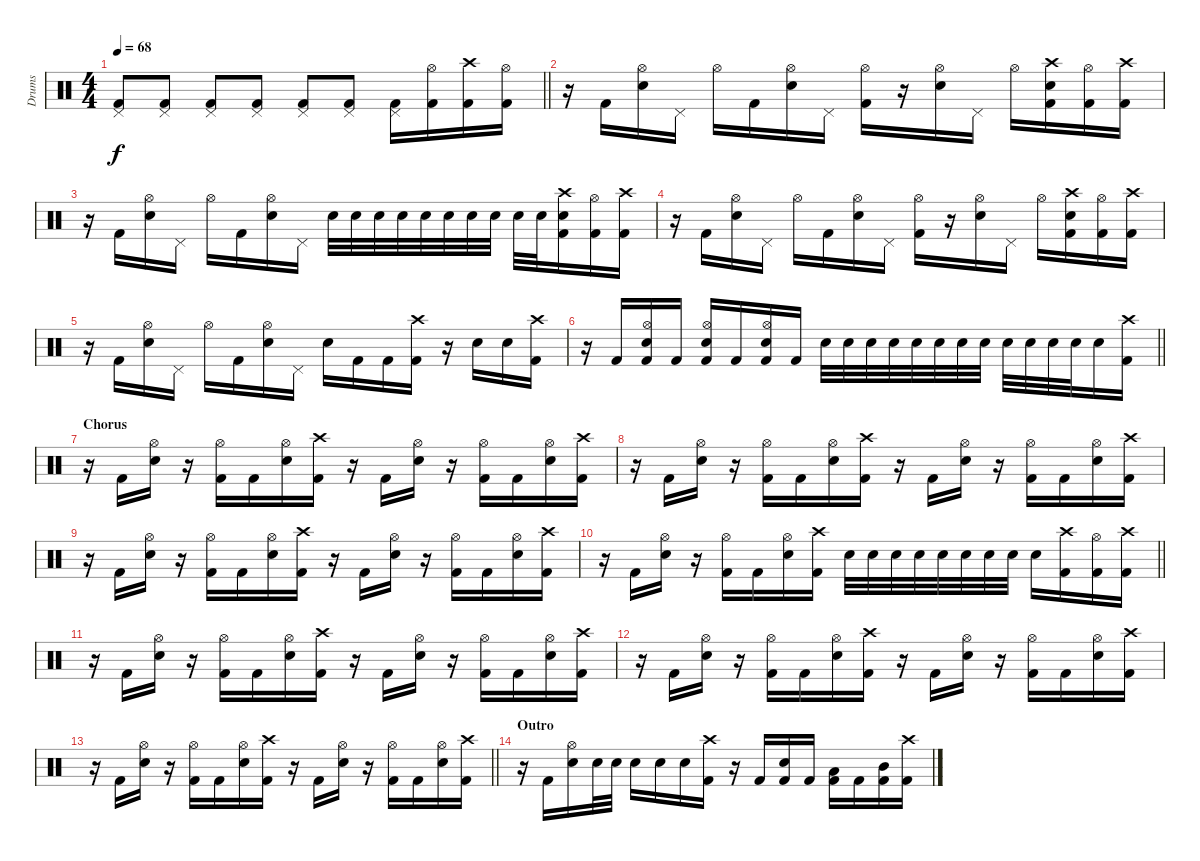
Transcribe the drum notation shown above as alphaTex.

\track ("Drums" "Drums") {instrument percussion}
\staff {score}
\articulation defaults
\ts (4 4)
\tempo 68
\clef neutral
\barLineRight lightlight
\ks c
("Pedal Hi-Hat (hit)" "Kick (hit) 2").8{dy f} ("Pedal Hi-Hat (hit)" "Kick (hit) 2").8 ("Pedal Hi-Hat (hit)" "Kick (hit) 2").8 ("Pedal Hi-Hat (hit)" "Kick (hit) 2").8 ("Pedal Hi-Hat (hit)" "Kick (hit) 2").8 ("Pedal Hi-Hat (hit)" "Kick (hit) 2").8 ("Pedal Hi-Hat (hit)" "Kick (hit) 2").16 ("Hi-Hat (open)" "Kick (hit) 2").16 ("Crash high (hit)" "Kick (hit) 2").16 ("Hi-Hat (open)" "Kick (hit) 2").16 |
r.16 "Kick (hit) 2".16 ("Hi-Hat (open)" "Snare (hit) 2").16 "Pedal Hi-Hat (hit)".16 "Hi-Hat (open)".16 "Kick (hit) 2".16 ("Hi-Hat (open)" "Snare (hit) 2").16 "Pedal Hi-Hat (hit)".16 ("Hi-Hat (open)" "Kick (hit) 2").16 r.16 ("Hi-Hat (open)" "Snare (hit) 2").16 "Pedal Hi-Hat (hit)".16 "Hi-Hat (open)".16 ("Crash high (hit)" "Snare (hit) 2" "Kick (hit) 2").16 ("Hi-Hat (open)" "Kick (hit) 2").16 ("Crash high (hit)" "Kick (hit) 2").16 |
r.16 "Kick (hit) 2".16 ("Hi-Hat (open)" "Snare (hit) 2").16 "Pedal Hi-Hat (hit)".16 "Hi-Hat (open)".16 "Kick (hit) 2".16 ("Hi-Hat (open)" "Snare (hit) 2").16 "Pedal Hi-Hat (hit)".16 "Snare (hit) 2".32 "Snare (hit) 2".32 "Snare (hit) 2".32 "Snare (hit) 2".32 "Snare (hit) 2".32 "Snare (hit) 2".32 "Snare (hit) 2".32 "Snare (hit) 2".32 "Snare (hit) 2".32 "Snare (hit) 2".32 ("Crash high (hit)" "Snare (hit) 2" "Kick (hit) 2").16 ("Hi-Hat (open)" "Kick (hit) 2").16 ("Crash high (hit)" "Kick (hit) 2").16 |
r.16 "Kick (hit) 2".16 ("Hi-Hat (open)" "Snare (hit) 2").16 "Pedal Hi-Hat (hit)".16 "Hi-Hat (open)".16 "Kick (hit) 2".16 ("Hi-Hat (open)" "Snare (hit) 2").16 "Pedal Hi-Hat (hit)".16 ("Hi-Hat (open)" "Kick (hit) 2").16 r.16 ("Hi-Hat (open)" "Snare (hit) 2").16 "Pedal Hi-Hat (hit)".16 "Hi-Hat (open)".16 ("Crash high (hit)" "Snare (hit) 2" "Kick (hit) 2").16 ("Hi-Hat (open)" "Kick (hit) 2").16 ("Crash high (hit)" "Kick (hit) 2").16 |
r.16 "Kick (hit) 2".16 ("Hi-Hat (open)" "Snare (hit) 2").16 "Pedal Hi-Hat (hit)".16 "Hi-Hat (open)".16 "Kick (hit) 2".16 ("Hi-Hat (open)" "Snare (hit) 2").16 "Pedal Hi-Hat (hit)".16 "Snare (hit) 2".16 "Kick (hit) 2".16 "Kick (hit) 2".16 ("Crash high (hit)" "Kick (hit) 2").16 r.16 "Snare (hit) 2".16 "Snare (hit) 2".16 ("Crash high (hit)" "Kick (hit) 2").16 |
\barLineRight lightlight
r.16 "Kick (hit) 2".16 ("Hi-Hat (open)" "Snare (hit) 2" "Kick (hit) 2").16 "Kick (hit) 2".16 ("Hi-Hat (open)" "Snare (hit) 2" "Kick (hit) 2").16 "Kick (hit) 2".16 ("Hi-Hat (open)" "Snare (hit) 2" "Kick (hit) 2").16 "Kick (hit) 2".16 "Snare (hit) 2".32 "Snare (hit) 2".32 "Snare (hit) 2".32 "Snare (hit) 2".32 "Snare (hit) 2".32 "Snare (hit) 2".32 "Snare (hit) 2".32 "Snare (hit) 2".32 "Snare (hit) 2".32 "Snare (hit) 2".32 "Snare (hit) 2".32 "Snare (hit) 2".32 "Snare (hit) 2".16 ("Crash high (hit)" "Kick (hit) 2").16 |
\section ("" "Chorus")
r.16 "Kick (hit) 2".16 ("Hi-Hat (open)" "Snare (hit) 2").16 r.16 ("Hi-Hat (open)" "Kick (hit) 2").16 "Kick (hit) 2".16 ("Hi-Hat (open)" "Snare (hit) 2").16 ("Crash high (hit)" "Kick (hit) 2").16 r.16 "Kick (hit) 2".16 ("Hi-Hat (open)" "Snare (hit) 2").16 r.16 ("Hi-Hat (open)" "Kick (hit) 2").16 "Kick (hit) 2".16 ("Hi-Hat (open)" "Snare (hit) 2").16 ("Crash high (hit)" "Kick (hit) 2").16 |
r.16 "Kick (hit) 2".16 ("Hi-Hat (open)" "Snare (hit) 2").16 r.16 ("Hi-Hat (open)" "Kick (hit) 2").16 "Kick (hit) 2".16 ("Hi-Hat (open)" "Snare (hit) 2").16 ("Crash high (hit)" "Kick (hit) 2").16 r.16 "Kick (hit) 2".16 ("Hi-Hat (open)" "Snare (hit) 2").16 r.16 ("Hi-Hat (open)" "Kick (hit) 2").16 "Kick (hit) 2".16 ("Hi-Hat (open)" "Snare (hit) 2").16 ("Crash high (hit)" "Kick (hit) 2").16 |
r.16 "Kick (hit) 2".16 ("Hi-Hat (open)" "Snare (hit) 2").16 r.16 ("Hi-Hat (open)" "Kick (hit) 2").16 "Kick (hit) 2".16 ("Hi-Hat (open)" "Snare (hit) 2").16 ("Crash high (hit)" "Kick (hit) 2").16 r.16 "Kick (hit) 2".16 ("Hi-Hat (open)" "Snare (hit) 2").16 r.16 ("Hi-Hat (open)" "Kick (hit) 2").16 "Kick (hit) 2".16 ("Hi-Hat (open)" "Snare (hit) 2").16 ("Crash high (hit)" "Kick (hit) 2").16 |
\barLineRight lightlight
r.16 "Kick (hit) 2".16 ("Hi-Hat (open)" "Snare (hit) 2").16 r.16 ("Hi-Hat (open)" "Kick (hit) 2").16 "Kick (hit) 2".16 ("Hi-Hat (open)" "Snare (hit) 2").16 ("Crash high (hit)" "Kick (hit) 2").16 "Snare (hit) 2".32 "Snare (hit) 2".32 "Snare (hit) 2".32 "Snare (hit) 2".32 "Snare (hit) 2".32 "Snare (hit) 2".32 "Snare (hit) 2".32 "Snare (hit) 2".32 "Snare (hit) 2".16 ("Crash high (hit)" "Kick (hit) 2").16 ("Hi-Hat (open)" "Kick (hit) 2").16 ("Crash high (hit)" "Kick (hit) 2").16 |
r.16 "Kick (hit) 2".16 ("Hi-Hat (open)" "Snare (hit) 2").16 r.16 ("Hi-Hat (open)" "Kick (hit) 2").16 "Kick (hit) 2".16 ("Hi-Hat (open)" "Snare (hit) 2").16 ("Crash high (hit)" "Kick (hit) 2").16 r.16 "Kick (hit) 2".16 ("Hi-Hat (open)" "Snare (hit) 2").16 r.16 ("Hi-Hat (open)" "Kick (hit) 2").16 "Kick (hit) 2".16 ("Hi-Hat (open)" "Snare (hit) 2").16 ("Crash high (hit)" "Kick (hit) 2").16 |
r.16 "Kick (hit) 2".16 ("Hi-Hat (open)" "Snare (hit) 2").16 r.16 ("Hi-Hat (open)" "Kick (hit) 2").16 "Kick (hit) 2".16 ("Hi-Hat (open)" "Snare (hit) 2").16 ("Crash high (hit)" "Kick (hit) 2").16 r.16 "Kick (hit) 2".16 ("Hi-Hat (open)" "Snare (hit) 2").16 r.16 ("Hi-Hat (open)" "Kick (hit) 2").16 "Kick (hit) 2".16 ("Hi-Hat (open)" "Snare (hit) 2").16 ("Crash high (hit)" "Kick (hit) 2").16 |
\barLineRight lightlight
r.16 "Kick (hit) 2".16 ("Hi-Hat (open)" "Snare (hit) 2").16 r.16 ("Hi-Hat (open)" "Kick (hit) 2").16 "Kick (hit) 2".16 ("Hi-Hat (open)" "Snare (hit) 2").16 ("Crash high (hit)" "Kick (hit) 2").16 r.16 "Kick (hit) 2".16 ("Hi-Hat (open)" "Snare (hit) 2").16 r.16 ("Hi-Hat (open)" "Kick (hit) 2").16 "Kick (hit) 2".16 ("Hi-Hat (open)" "Snare (hit) 2").16 ("Crash high (hit)" "Kick (hit) 2").16 |
\section ("" "Outro")
r.16 "Kick (hit) 2".16 ("Hi-Hat (open)" "Snare (hit) 2").16 "Snare (hit) 2".32 "Snare (hit) 2".32 "Snare (hit) 2".16 "Snare (hit) 2".16 "Snare (hit) 2".16 ("Crash high (hit)" "Kick (hit) 2").16 r.16 "Kick (hit) 2".16 ("Snare (hit) 2" "Kick (hit) 2").16 "Kick (hit) 2".16 ("Low Tom (hit)" "Kick (hit) 2").16 "Kick (hit) 2".16 ("Mid Tom (hit)" "Kick (hit) 2").16 ("Crash high (hit)" "Kick (hit) 2").16
